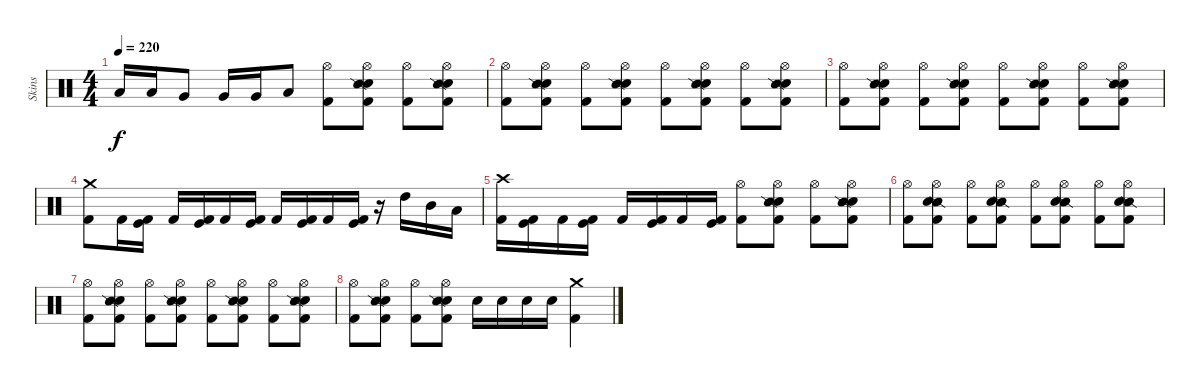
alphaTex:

\track ("Skins" "Skins") {instrument percussion}
\staff {score}
\articulation defaults
\ts (4 4)
\tempo 220
\clef neutral
\ks c "Low Tom (hit)".16{dy f} "Low Tom (hit)".16 "Very Low Tom (hit)".8 "Very Low Tom (hit)".16 "Very Low Tom (hit)".16 "Low Floor Tom (hit)".8
("Hi-Hat (open)" "Kick (hit) 2").8 ("Hi-Hat (open)" "Electric Snare (hit)" "Snare (side stick) 2" "Kick (hit) 2").8 ("Hi-Hat (open)" "Kick (hit) 2").8 ("Hi-Hat (open)" "Electric Snare (hit)" "Snare (side stick) 2" "Kick (hit) 2").8 |
("Hi-Hat (open)" "Kick (hit) 2").8 ("Hi-Hat (open)" "Electric Snare (hit)" "Snare (side stick) 2" "Kick (hit) 2").8 ("Hi-Hat (open)" "Kick (hit) 2").8 ("Hi-Hat (open)" "Electric Snare (hit)" "Snare (side stick) 2" "Kick (hit) 2").8 ("Hi-Hat (open)" "Kick (hit) 2").8 ("Hi-Hat (open)" "Electric Snare (hit)" "Snare (side stick) 2" "Kick (hit) 2").8 ("Hi-Hat (open)" "Kick (hit) 2").8 ("Hi-Hat (open)" "Electric Snare (hit)" "Snare (side stick) 2" "Kick (hit) 2").8 |
("Hi-Hat (open)" "Kick (hit) 2").8 ("Hi-Hat (open)" "Electric Snare (hit)" "Snare (side stick) 2" "Kick (hit) 2").8 ("Hi-Hat (open)" "Kick (hit) 2").8 ("Hi-Hat (open)" "Electric Snare (hit)" "Snare (side stick) 2" "Kick (hit) 2").8 ("Hi-Hat (open)" "Kick (hit) 2").8 ("Hi-Hat (open)" "Electric Snare (hit)" "Snare (side stick) 2" "Kick (hit) 2").8 ("Hi-Hat (open)" "Kick (hit) 2").8 ("Hi-Hat (open)" "Electric Snare (hit)" "Snare (side stick) 2" "Kick (hit) 2").8 |
("Crash medium (hit)" "Kick (hit) 2").8 "Kick (hit) 2".16 ("Kick (hit)" "Kick (hit) 2").16 "Kick (hit) 2".16 ("Kick (hit)" "Kick (hit) 2").16 "Kick (hit) 2".16 ("Kick (hit)" "Kick (hit) 2").16 "Kick (hit) 2".16 ("Kick (hit)" "Kick (hit) 2").16 "Kick (hit) 2".16 ("Kick (hit)" "Kick (hit) 2").16 r.16 "High Tom (hit)".16 "Mid Tom (hit)".16 "Low Tom (hit)".16 |
("Crash high (hit)" "Kick (hit) 2").16 ("Kick (hit)" "Kick (hit) 2").16 "Kick (hit) 2".16 ("Kick (hit)" "Kick (hit) 2").16 "Kick (hit) 2".16 ("Kick (hit)" "Kick (hit) 2").16 "Kick (hit) 2".16 ("Kick (hit)" "Kick (hit) 2").16 ("Hi-Hat (open)" "Kick (hit) 2").8 ("Hi-Hat (open)" "Electric Snare (hit)" "Snare (side stick) 2" "Kick (hit) 2").8 ("Hi-Hat (open)" "Kick (hit) 2").8 ("Hi-Hat (open)" "Electric Snare (hit)" "Snare (side stick) 2" "Kick (hit) 2").8 |
("Hi-Hat (open)" "Kick (hit) 2").8 ("Hi-Hat (open)" "Snare (side stick) 2" "Electric Snare (hit)" "Kick (hit) 2").8 ("Hi-Hat (open)" "Kick (hit) 2").8 ("Hi-Hat (open)" "Snare (side stick) 2" "Electric Snare (hit)" "Kick (hit) 2").8 ("Hi-Hat (open)" "Kick (hit) 2").8 ("Hi-Hat (open)" "Snare (side stick) 2" "Electric Snare (hit)" "Kick (hit) 2").8 ("Hi-Hat (open)" "Kick (hit) 2").8 ("Hi-Hat (open)" "Snare (side stick) 2" "Electric Snare (hit)" "Kick (hit) 2").8 |
("Hi-Hat (open)" "Kick (hit) 2").8 ("Hi-Hat (open)" "Electric Snare (hit)" "Snare (side stick) 2" "Kick (hit) 2").8 ("Hi-Hat (open)" "Kick (hit) 2").8 ("Hi-Hat (open)" "Electric Snare (hit)" "Snare (side stick) 2" "Kick (hit) 2").8 ("Hi-Hat (open)" "Kick (hit) 2").8 ("Hi-Hat (open)" "Electric Snare (hit)" "Snare (side stick) 2" "Kick (hit) 2").8 ("Hi-Hat (open)" "Kick (hit) 2").8 ("Hi-Hat (open)" "Electric Snare (hit)" "Snare (side stick) 2" "Kick (hit) 2").8 |
("Hi-Hat (open)" "Kick (hit) 2").8 ("Hi-Hat (open)" "Electric Snare (hit)" "Snare (side stick) 2" "Kick (hit) 2").8 ("Hi-Hat (open)" "Kick (hit) 2").8 ("Hi-Hat (open)" "Electric Snare (hit)" "Snare (side stick) 2" "Kick (hit) 2").8 "Electric Snare (hit)".16 "Electric Snare (hit)".16 "Electric Snare (hit)".16 "Electric Snare (hit)".16 ("Crash medium (hit)" "Kick (hit) 2").4
